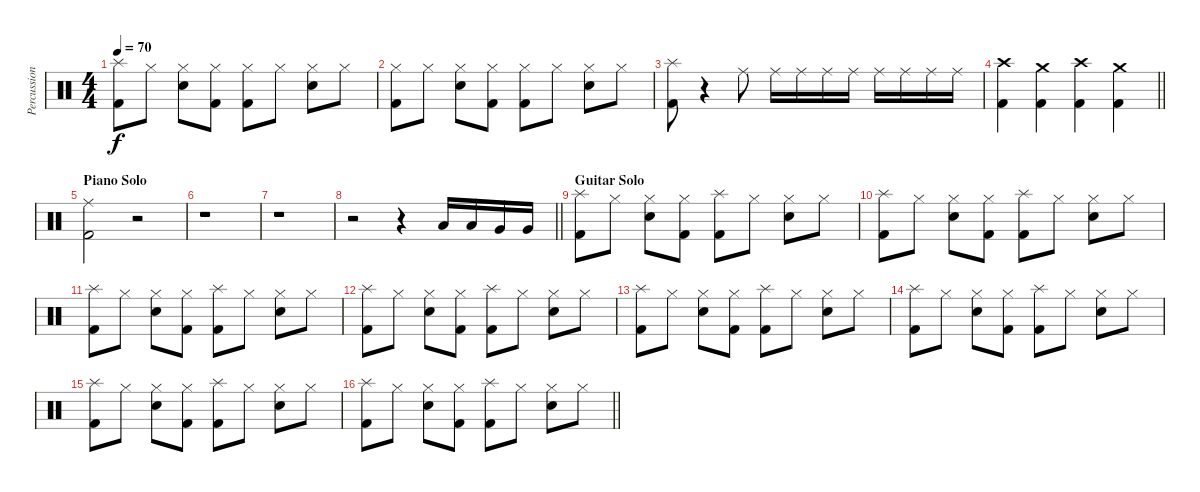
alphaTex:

\track ("Percussion" "Percussion") {instrument percussion}
\staff {score}
\articulation defaults
\ts (4 4)
\tempo 70
\clef neutral
\ks c
("Splash (hit)" "Kick (hit) 2").8{dy f} "Hi-Hat (closed)".8 ("Hi-Hat (closed)" "Snare (hit) 2").8 ("Hi-Hat (closed)" "Kick (hit) 2").8 ("Hi-Hat (closed)" "Kick (hit) 2").8 "Hi-Hat (closed)".8 ("Hi-Hat (closed)" "Snare (hit) 2").8 "Hi-Hat (closed)".8 |
("Hi-Hat (closed)" "Kick (hit) 2").8 "Hi-Hat (closed)".8 ("Hi-Hat (closed)" "Snare (hit) 2").8 ("Hi-Hat (closed)" "Kick (hit) 2").8 ("Hi-Hat (closed)" "Kick (hit) 2").8 "Hi-Hat (closed)".8 ("Hi-Hat (closed)" "Snare (hit) 2").8 "Hi-Hat (closed)".8 |
("Splash (hit)" "Kick (hit) 2").8 r.4 "Ride (middle)".8 "Ride (middle)".16 "Ride (middle)".16 "Ride (middle)".16 "Ride (middle)".16 "Ride (middle)".16 "Ride (middle)".16 "Ride (middle)".16 "Ride (middle)".16 |
\barLineRight lightlight
("Crash high (hit)" "Kick (hit) 2").4 ("Crash medium (hit)" "Kick (hit) 2").4 ("Crash high (hit)" "Kick (hit) 2").4 ("Crash medium (hit)" "Kick (hit) 2").4 |
\section ("" "Piano Solo")
("Ride (middle)" "Kick (hit) 2").2 r.2 |
r.1 |
r.1 |
\barLineRight lightlight
r.2 r.4 "Low Tom (hit)".16 "Low Tom (hit)".16 "Very Low Tom (hit)".16 "Very Low Tom (hit)".16 |
\section ("" "Guitar Solo")
("Splash (hit)" "Kick (hit) 2").8 "Hi-Hat (closed)".8 ("Hi-Hat (closed)" "Snare (hit) 2").8 ("Hi-Hat (closed)" "Kick (hit) 2").8 ("Splash (hit)" "Kick (hit) 2").8 "Hi-Hat (closed)".8 ("Hi-Hat (closed)" "Snare (hit) 2").8 "Hi-Hat (closed)".8 |
("Splash (hit)" "Kick (hit) 2").8 "Hi-Hat (closed)".8 ("Hi-Hat (closed)" "Snare (hit) 2").8 ("Hi-Hat (closed)" "Kick (hit) 2").8 ("Splash (hit)" "Kick (hit) 2").8 "Hi-Hat (closed)".8 ("Hi-Hat (closed)" "Snare (hit) 2").8 "Hi-Hat (closed)".8 |
("Splash (hit)" "Kick (hit) 2").8 "Hi-Hat (closed)".8 ("Hi-Hat (closed)" "Snare (hit) 2").8 ("Hi-Hat (closed)" "Kick (hit) 2").8 ("Splash (hit)" "Kick (hit) 2").8 "Hi-Hat (closed)".8 ("Hi-Hat (closed)" "Snare (hit) 2").8 "Hi-Hat (closed)".8 |
("Splash (hit)" "Kick (hit) 2").8 "Hi-Hat (closed)".8 ("Hi-Hat (closed)" "Snare (hit) 2").8 ("Hi-Hat (closed)" "Kick (hit) 2").8 ("Splash (hit)" "Kick (hit) 2").8 "Hi-Hat (closed)".8 ("Hi-Hat (closed)" "Snare (hit) 2").8 "Hi-Hat (closed)".8 |
("Splash (hit)" "Kick (hit) 2").8 "Hi-Hat (closed)".8 ("Hi-Hat (closed)" "Snare (hit) 2").8 ("Hi-Hat (closed)" "Kick (hit) 2").8 ("Splash (hit)" "Kick (hit) 2").8 "Hi-Hat (closed)".8 ("Hi-Hat (closed)" "Snare (hit) 2").8 "Hi-Hat (closed)".8 |
("Splash (hit)" "Kick (hit) 2").8 "Hi-Hat (closed)".8 ("Hi-Hat (closed)" "Snare (hit) 2").8 ("Hi-Hat (closed)" "Kick (hit) 2").8 ("Splash (hit)" "Kick (hit) 2").8 "Hi-Hat (closed)".8 ("Hi-Hat (closed)" "Snare (hit) 2").8 "Hi-Hat (closed)".8 |
("Splash (hit)" "Kick (hit) 2").8 "Hi-Hat (closed)".8 ("Hi-Hat (closed)" "Snare (hit) 2").8 ("Hi-Hat (closed)" "Kick (hit) 2").8 ("Splash (hit)" "Kick (hit) 2").8 "Hi-Hat (closed)".8 ("Hi-Hat (closed)" "Snare (hit) 2").8 "Hi-Hat (closed)".8 |
\barLineRight lightlight
("Splash (hit)" "Kick (hit) 2").8 "Hi-Hat (closed)".8 ("Hi-Hat (closed)" "Snare (hit) 2").8 ("Hi-Hat (closed)" "Kick (hit) 2").8 ("Splash (hit)" "Kick (hit) 2").8 "Hi-Hat (closed)".8 ("Hi-Hat (closed)" "Snare (hit) 2").8 "Hi-Hat (closed)".8
